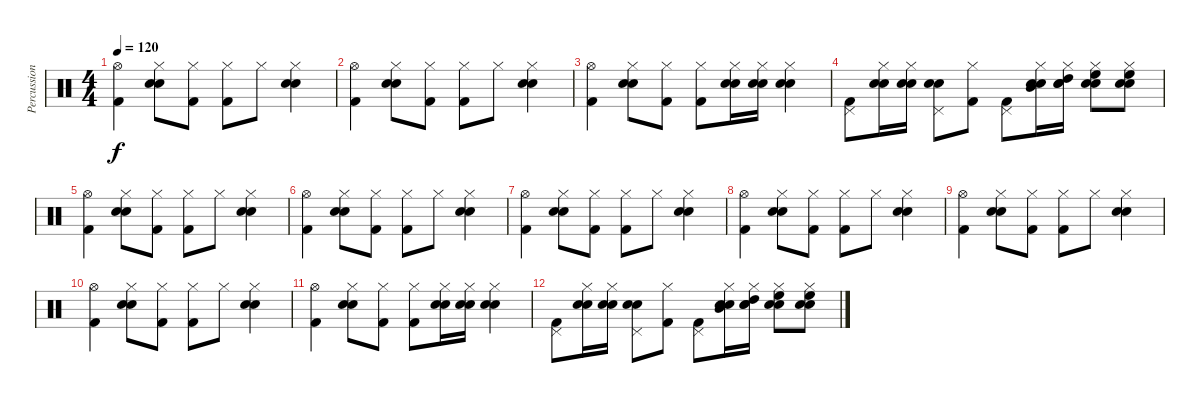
\track ("Percussions" "Percussion") {instrument percussion}
\staff {score}
\articulation defaults
\ts (4 4)
\tempo 120
\clef neutral
\ks c
("Hi-Hat (open)" "Kick (hit) 2").4{dy f} ("Hi-Hat (closed)" "Electric Snare (hit)" "Snare (hit) 2").8 ("Hi-Hat (closed)" "Kick (hit) 2").8 ("Hi-Hat (closed)" "Kick (hit) 2").8 "Hi-Hat (closed)".8 ("Hi-Hat (closed)" "Electric Snare (hit)" "Snare (hit) 2").4 |
("Hi-Hat (open)" "Kick (hit) 2").4 ("Hi-Hat (closed)" "Electric Snare (hit)" "Snare (hit) 2").8 ("Hi-Hat (closed)" "Kick (hit) 2").8 ("Hi-Hat (closed)" "Kick (hit) 2").8 "Hi-Hat (closed)".8 ("Hi-Hat (closed)" "Electric Snare (hit)" "Snare (hit) 2").4 |
("Hi-Hat (open)" "Kick (hit) 2").4 ("Hi-Hat (closed)" "Electric Snare (hit)" "Snare (hit) 2").8 ("Hi-Hat (closed)" "Kick (hit) 2").8 ("Hi-Hat (closed)" "Kick (hit) 2").8 ("Hi-Hat (closed)" "Electric Snare (hit)" "Snare (hit) 2").16 ("Hi-Hat (closed)" "Electric Snare (hit)" "Snare (hit) 2").16 ("Hi-Hat (closed)" "Electric Snare (hit)" "Snare (hit) 2").4 |
("Pedal Hi-Hat (hit)" "Kick (hit) 2").8 ("Hi-Hat (closed)" "Electric Snare (hit)" "Snare (hit) 2").16 ("Hi-Hat (closed)" "Electric Snare (hit)" "Snare (hit) 2").16 ("Pedal Hi-Hat (hit)" "Electric Snare (hit)" "Snare (hit) 2").8 ("Hi-Hat (closed)" "Kick (hit) 2").8 ("Pedal Hi-Hat (hit)" "Kick (hit) 2").8 ("Hi-Hat (closed)" "Mid Tom (hit)" "Electric Snare (hit)" "Snare (hit) 2").16 ("Hi-Hat (closed)" "High Tom (hit)" "Electric Snare (hit)" "Snare (hit) 2").16 ("Hi-Hat (closed)" "High Floor Tom (hit)" "Electric Snare (hit)" "Snare (hit) 2").8 ("Hi-Hat (closed)" "High Floor Tom (hit)" "Electric Snare (hit)" "Snare (hit) 2").8 |
("Hi-Hat (open)" "Kick (hit) 2").4 ("Hi-Hat (closed)" "Electric Snare (hit)" "Snare (hit) 2").8 ("Hi-Hat (closed)" "Kick (hit) 2").8 ("Hi-Hat (closed)" "Kick (hit) 2").8 "Hi-Hat (closed)".8 ("Hi-Hat (closed)" "Electric Snare (hit)" "Snare (hit) 2").4 |
("Hi-Hat (open)" "Kick (hit) 2").4 ("Hi-Hat (closed)" "Electric Snare (hit)" "Snare (hit) 2").8 ("Hi-Hat (closed)" "Kick (hit) 2").8 ("Hi-Hat (closed)" "Kick (hit) 2").8 "Hi-Hat (closed)".8 ("Hi-Hat (closed)" "Electric Snare (hit)" "Snare (hit) 2").4 |
("Hi-Hat (open)" "Kick (hit) 2").4 ("Hi-Hat (closed)" "Electric Snare (hit)" "Snare (hit) 2").8 ("Hi-Hat (closed)" "Kick (hit) 2").8 ("Hi-Hat (closed)" "Kick (hit) 2").8 "Hi-Hat (closed)".8 ("Hi-Hat (closed)" "Electric Snare (hit)" "Snare (hit) 2").4 |
("Hi-Hat (open)" "Kick (hit) 2").4 ("Hi-Hat (closed)" "Electric Snare (hit)" "Snare (hit) 2").8 ("Hi-Hat (closed)" "Kick (hit) 2").8 ("Hi-Hat (closed)" "Kick (hit) 2").8 "Hi-Hat (closed)".8 ("Hi-Hat (closed)" "Electric Snare (hit)" "Snare (hit) 2").4 |
("Hi-Hat (open)" "Kick (hit) 2").4 ("Hi-Hat (closed)" "Electric Snare (hit)" "Snare (hit) 2").8 ("Hi-Hat (closed)" "Kick (hit) 2").8 ("Hi-Hat (closed)" "Kick (hit) 2").8 "Hi-Hat (closed)".8 ("Hi-Hat (closed)" "Electric Snare (hit)" "Snare (hit) 2").4 |
("Hi-Hat (open)" "Kick (hit) 2").4 ("Hi-Hat (closed)" "Electric Snare (hit)" "Snare (hit) 2").8 ("Hi-Hat (closed)" "Kick (hit) 2").8 ("Hi-Hat (closed)" "Kick (hit) 2").8 "Hi-Hat (closed)".8 ("Hi-Hat (closed)" "Electric Snare (hit)" "Snare (hit) 2").4 |
("Hi-Hat (open)" "Kick (hit) 2").4 ("Hi-Hat (closed)" "Electric Snare (hit)" "Snare (hit) 2").8 ("Hi-Hat (closed)" "Kick (hit) 2").8 ("Hi-Hat (closed)" "Kick (hit) 2").8 ("Hi-Hat (closed)" "Electric Snare (hit)" "Snare (hit) 2").16 ("Hi-Hat (closed)" "Electric Snare (hit)" "Snare (hit) 2").16 ("Hi-Hat (closed)" "Electric Snare (hit)" "Snare (hit) 2").4 |
("Pedal Hi-Hat (hit)" "Kick (hit) 2").8 ("Hi-Hat (closed)" "Electric Snare (hit)" "Snare (hit) 2").16 ("Hi-Hat (closed)" "Electric Snare (hit)" "Snare (hit) 2").16 ("Pedal Hi-Hat (hit)" "Electric Snare (hit)" "Snare (hit) 2").8 ("Hi-Hat (closed)" "Kick (hit) 2").8 ("Pedal Hi-Hat (hit)" "Kick (hit) 2").8 ("Hi-Hat (closed)" "Mid Tom (hit)" "Electric Snare (hit)" "Snare (hit) 2").16 ("Hi-Hat (closed)" "High Tom (hit)" "Electric Snare (hit)" "Snare (hit) 2").16 ("Hi-Hat (closed)" "High Floor Tom (hit)" "Electric Snare (hit)" "Snare (hit) 2").8 ("Hi-Hat (closed)" "High Floor Tom (hit)" "Electric Snare (hit)" "Snare (hit) 2").8
